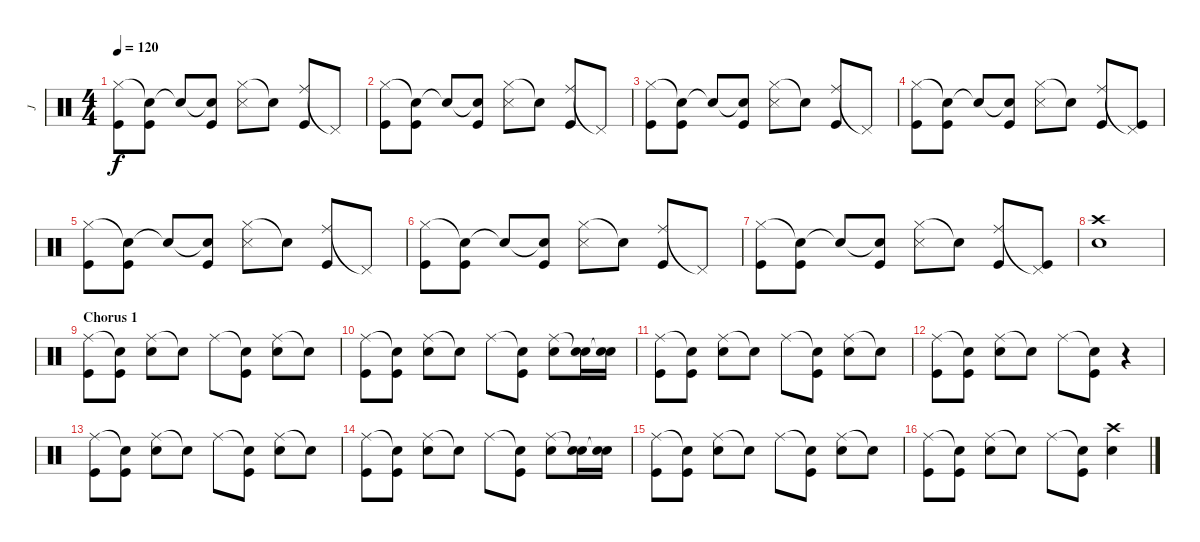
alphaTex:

\track ("J" "J") {instrument percussion}
\staff {score}
\articulation defaults
\ts (4 4)
\tempo 120
\clef neutral
\ks c
("Hi-Hat (closed)" "Kick (hit)").8{dy f} ("Snare (hit)"{t} "Kick (hit)").8 "Snare (hit)"{t}.8 ("Snare (hit)"{t} "Kick (hit)").8 ("Hi-Hat (closed)" "Snare (side stick) 3").8 "Snare (hit)"{t}.8 ("Ride (middle)" "Kick (hit)").8 "Pedal Hi-Hat (hit)"{t}.8 |
("Hi-Hat (closed)" "Kick (hit)").8 ("Snare (hit)"{t} "Kick (hit)").8 "Snare (hit)"{t}.8 ("Snare (hit)"{t} "Kick (hit)").8 ("Hi-Hat (closed)" "Snare (side stick) 3").8 "Snare (hit)"{t}.8 ("Ride (middle)" "Kick (hit)").8 "Pedal Hi-Hat (hit)"{t}.8 |
("Hi-Hat (closed)" "Kick (hit)").8 ("Snare (hit)"{t} "Kick (hit)").8 "Snare (hit)"{t}.8 ("Snare (hit)"{t} "Kick (hit)").8 ("Hi-Hat (closed)" "Snare (side stick) 3").8 "Snare (hit)"{t}.8 ("Ride (middle)" "Kick (hit)").8 "Pedal Hi-Hat (hit)"{t}.8 |
("Hi-Hat (closed)" "Kick (hit)").8 ("Snare (hit)"{t} "Kick (hit)").8 "Snare (hit)"{t}.8 ("Snare (hit)"{t} "Kick (hit)").8 ("Hi-Hat (closed)" "Snare (side stick) 3").8 "Snare (hit)"{t}.8 ("Ride (middle)" "Kick (hit)").8 ("Pedal Hi-Hat (hit)"{t} "Kick (hit)").8 |
("Hi-Hat (closed)" "Kick (hit)").8 ("Snare (hit)"{t} "Kick (hit)").8 "Snare (hit)"{t}.8 ("Snare (hit)"{t} "Kick (hit)").8 ("Hi-Hat (closed)" "Snare (side stick) 3").8 "Snare (hit)"{t}.8 ("Ride (middle)" "Kick (hit)").8 "Pedal Hi-Hat (hit)"{t}.8 |
("Hi-Hat (closed)" "Kick (hit)").8 ("Snare (hit)"{t} "Kick (hit)").8 "Snare (hit)"{t}.8 ("Snare (hit)"{t} "Kick (hit)").8 ("Hi-Hat (closed)" "Snare (side stick) 3").8 "Snare (hit)"{t}.8 ("Ride (middle)" "Kick (hit)").8 "Pedal Hi-Hat (hit)"{t}.8 |
("Hi-Hat (closed)" "Kick (hit)").8 ("Snare (hit)"{t} "Kick (hit)").8 "Snare (hit)"{t}.8 ("Snare (hit)"{t} "Kick (hit)").8 ("Hi-Hat (closed)" "Snare (side stick) 3").8 "Snare (hit)"{t}.8 ("Ride (middle)" "Kick (hit)").8 ("Pedal Hi-Hat (hit)"{t} "Kick (hit)").8 |
("Crash high (hit)" "Electric Snare (hit)").1 |
\section ("" "Chorus 1")
("Ride (middle)" "Kick (hit)").8 ("Snare (hit)"{t} "Kick (hit)").8 ("Ride (middle)" "Electric Snare (hit)").8 "Snare (hit)"{t}.8 "Ride (middle)".8 ("Snare (hit)"{t} "Kick (hit)").8 ("Ride (middle)" "Electric Snare (hit)").8 "Snare (hit)"{t}.8 |
("Ride (middle)" "Kick (hit)").8 ("Snare (hit)"{t} "Kick (hit)").8 ("Ride (middle)" "Electric Snare (hit)").8 "Snare (hit)"{t}.8 "Ride (middle)".8 ("Snare (hit)"{t} "Kick (hit)").8 ("Ride (middle)" "Electric Snare (hit)").8 ("Snare (hit)"{t} "Electric Snare (hit)").16 ("Snare (hit)"{t} "Electric Snare (hit)").16 |
("Ride (middle)" "Kick (hit)").8 ("Snare (hit)"{t} "Kick (hit)").8 ("Ride (middle)" "Electric Snare (hit)").8 "Snare (hit)"{t}.8 "Ride (middle)".8 ("Snare (hit)"{t} "Kick (hit)").8 ("Ride (middle)" "Electric Snare (hit)").8 "Snare (hit)"{t}.8 |
("Ride (middle)" "Kick (hit)").8 ("Snare (hit)"{t} "Kick (hit)").8 ("Ride (middle)" "Electric Snare (hit)").8 "Snare (hit)"{t}.8 "Ride (middle)".8 ("Snare (hit)"{t} "Kick (hit)").8 r.4 |
("Ride (middle)" "Kick (hit)").8 ("Snare (hit)"{t} "Kick (hit)").8 ("Ride (middle)" "Electric Snare (hit)").8 "Snare (hit)"{t}.8 "Ride (middle)".8 ("Snare (hit)"{t} "Kick (hit)").8 ("Ride (middle)" "Electric Snare (hit)").8 "Snare (hit)"{t}.8 |
("Ride (middle)" "Kick (hit)").8 ("Snare (hit)"{t} "Kick (hit)").8 ("Ride (middle)" "Electric Snare (hit)").8 "Snare (hit)"{t}.8 "Ride (middle)".8 ("Snare (hit)"{t} "Kick (hit)").8 ("Ride (middle)" "Electric Snare (hit)").8 ("Snare (hit)"{t} "Electric Snare (hit)").16 ("Snare (hit)"{t} "Electric Snare (hit)").16 |
("Ride (middle)" "Kick (hit)").8 ("Snare (hit)"{t} "Kick (hit)").8 ("Ride (middle)" "Electric Snare (hit)").8 "Snare (hit)"{t}.8 "Ride (middle)".8 ("Snare (hit)"{t} "Kick (hit)").8 ("Ride (middle)" "Electric Snare (hit)").8 "Snare (hit)"{t}.8 |
("Ride (middle)" "Kick (hit)").8 ("Snare (hit)"{t} "Kick (hit)").8 ("Ride (middle)" "Electric Snare (hit)").8 "Snare (hit)"{t}.8 "Ride (middle)".8 ("Snare (hit)"{t} "Kick (hit)").8 ("Crash high (hit)" "Electric Snare (hit)").4
